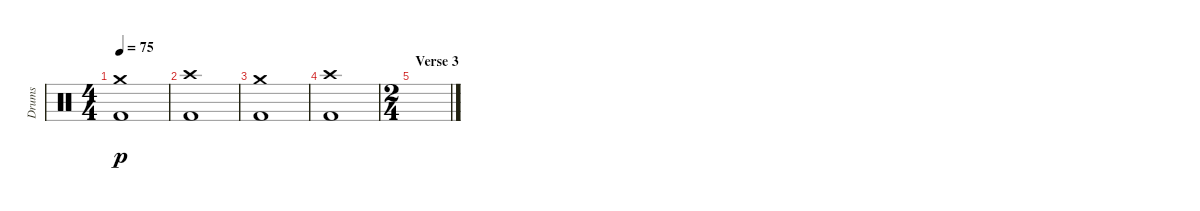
\track ("Drums" "Drums") {instrument percussion}
\staff {score}
\articulation defaults
\ts (4 4)
\tempo 75
\clef neutral
\ks c
("Kick (hit) 2" "Crash medium (hit)").1{dy p} |
("Kick (hit) 2" "Crash high (hit)").1 |
("Kick (hit) 2" "Crash medium (hit)").1 |
("Kick (hit) 2" "Crash high (hit)").1 |
\ts (2 4)
\section ("" "Verse 3")
